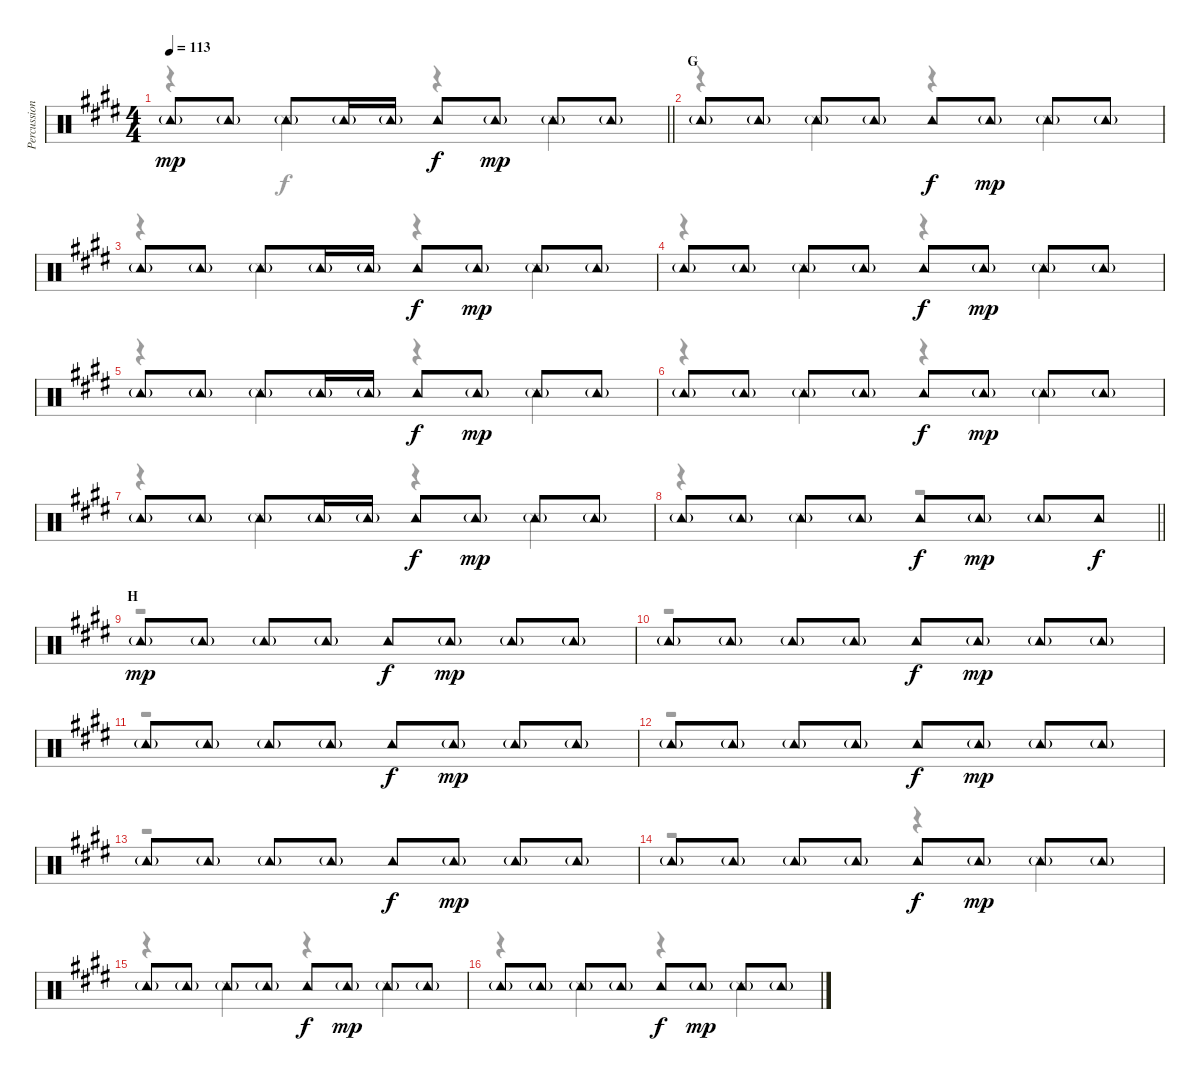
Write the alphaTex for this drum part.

\track ("Percussion" "Percussion") {instrument percussion}
\staff {score}
\articulation defaults
\voice
\ts (4 4)
\tempo 113
\clef neutral
\barLineRight lightlight
\ks e "Tambourine (hit)"{g}.8{dy mp} "Tambourine (hit)"{g}.8 "Tambourine (hit)"{g}.8 "Tambourine (hit)"{g}.16 "Tambourine (hit)"{g}.16 "Tambourine (hit)".8{dy f} "Tambourine (hit)"{g}.8{dy mp} "Tambourine (hit)"{g}.8 "Tambourine (hit)"{g}.8
|
\section ("" "G")
"Tambourine (hit)"{g}.8 "Tambourine (hit)"{g}.8 "Tambourine (hit)"{g}.8 "Tambourine (hit)"{g}.8 "Tambourine (hit)".8{dy f} "Tambourine (hit)"{g}.8{dy mp} "Tambourine (hit)"{g}.8 "Tambourine (hit)"{g}.8 |
"Tambourine (hit)"{g}.8 "Tambourine (hit)"{g}.8 "Tambourine (hit)"{g}.8 "Tambourine (hit)"{g}.16 "Tambourine (hit)"{g}.16 "Tambourine (hit)".8{dy f} "Tambourine (hit)"{g}.8{dy mp} "Tambourine (hit)"{g}.8 "Tambourine (hit)"{g}.8 |
"Tambourine (hit)"{g}.8 "Tambourine (hit)"{g}.8 "Tambourine (hit)"{g}.8 "Tambourine (hit)"{g}.8 "Tambourine (hit)".8{dy f} "Tambourine (hit)"{g}.8{dy mp} "Tambourine (hit)"{g}.8 "Tambourine (hit)"{g}.8 |
"Tambourine (hit)"{g}.8 "Tambourine (hit)"{g}.8 "Tambourine (hit)"{g}.8 "Tambourine (hit)"{g}.16 "Tambourine (hit)"{g}.16 "Tambourine (hit)".8{dy f} "Tambourine (hit)"{g}.8{dy mp} "Tambourine (hit)"{g}.8 "Tambourine (hit)"{g}.8 |
"Tambourine (hit)"{g}.8 "Tambourine (hit)"{g}.8 "Tambourine (hit)"{g}.8 "Tambourine (hit)"{g}.8 "Tambourine (hit)".8{dy f} "Tambourine (hit)"{g}.8{dy mp} "Tambourine (hit)"{g}.8 "Tambourine (hit)"{g}.8 |
"Tambourine (hit)"{g}.8 "Tambourine (hit)"{g}.8 "Tambourine (hit)"{g}.8 "Tambourine (hit)"{g}.16 "Tambourine (hit)"{g}.16 "Tambourine (hit)".8{dy f} "Tambourine (hit)"{g}.8{dy mp} "Tambourine (hit)"{g}.8 "Tambourine (hit)"{g}.8 |
\barLineRight lightlight "Tambourine (hit)"{g}.8 "Tambourine (hit)"{g}.8 "Tambourine (hit)"{g}.8 "Tambourine (hit)"{g}.8 "Tambourine (hit)".8{dy f} "Tambourine (hit)"{g}.8{dy mp} "Tambourine (hit)"{g}.8 "Tambourine (hit)".8{dy f}
|
\section ("" "H")
"Tambourine (hit)"{g}.8{dy mp} "Tambourine (hit)"{g}.8 "Tambourine (hit)"{g}.8 "Tambourine (hit)"{g}.8 "Tambourine (hit)".8{dy f} "Tambourine (hit)"{g}.8{dy mp} "Tambourine (hit)"{g}.8 "Tambourine (hit)"{g}.8 |
"Tambourine (hit)"{g}.8 "Tambourine (hit)"{g}.8 "Tambourine (hit)"{g}.8 "Tambourine (hit)"{g}.8 "Tambourine (hit)".8{dy f} "Tambourine (hit)"{g}.8{dy mp} "Tambourine (hit)"{g}.8 "Tambourine (hit)"{g}.8 |
"Tambourine (hit)"{g}.8 "Tambourine (hit)"{g}.8 "Tambourine (hit)"{g}.8 "Tambourine (hit)"{g}.8 "Tambourine (hit)".8{dy f} "Tambourine (hit)"{g}.8{dy mp} "Tambourine (hit)"{g}.8 "Tambourine (hit)"{g}.8 |
"Tambourine (hit)"{g}.8 "Tambourine (hit)"{g}.8 "Tambourine (hit)"{g}.8 "Tambourine (hit)"{g}.8 "Tambourine (hit)".8{dy f} "Tambourine (hit)"{g}.8{dy mp} "Tambourine (hit)"{g}.8 "Tambourine (hit)"{g}.8 |
"Tambourine (hit)"{g}.8 "Tambourine (hit)"{g}.8 "Tambourine (hit)"{g}.8 "Tambourine (hit)"{g}.8 "Tambourine (hit)".8{dy f} "Tambourine (hit)"{g}.8{dy mp} "Tambourine (hit)"{g}.8 "Tambourine (hit)"{g}.8 |
"Tambourine (hit)"{g}.8 "Tambourine (hit)"{g}.8 "Tambourine (hit)"{g}.8 "Tambourine (hit)"{g}.8 "Tambourine (hit)".8{dy f} "Tambourine (hit)"{g}.8{dy mp} "Tambourine (hit)"{g}.8 "Tambourine (hit)"{g}.8 |
"Tambourine (hit)"{g}.8 "Tambourine (hit)"{g}.8 "Tambourine (hit)"{g}.8 "Tambourine (hit)"{g}.8 "Tambourine (hit)".8{dy f} "Tambourine (hit)"{g}.8{dy mp} "Tambourine (hit)"{g}.8 "Tambourine (hit)"{g}.8 |
"Tambourine (hit)"{g}.8 "Tambourine (hit)"{g}.8 "Tambourine (hit)"{g}.8 "Tambourine (hit)"{g}.8 "Tambourine (hit)".8{dy f} "Tambourine (hit)"{g}.8{dy mp} "Tambourine (hit)"{g}.8 "Tambourine (hit)"{g}.8
\voice
\clef neutral
\ottava regular
\simile none
\barLineRight lightlight
\ks e
r.4{dy f} "Snare (side stick) 3".4 r.4 "Snare (side stick) 3".4 |
r.4 "Snare (side stick) 3".4 r.4 "Snare (side stick) 3".4 |
r.4 "Snare (side stick) 3".4 r.4 "Snare (side stick) 3".4 |
r.4 "Snare (side stick) 3".4 r.4 "Snare (side stick) 3".4 |
r.4 "Snare (side stick) 3".4 r.4 "Snare (side stick) 3".4 |
r.4 "Snare (side stick) 3".4 r.4 "Snare (side stick) 3".4 |
r.4 "Snare (side stick) 3".4 r.4 "Snare (side stick) 3".4 |
\barLineRight lightlight
r.4 "Snare (side stick) 3".4 r.2 |
r.1 |
r.1 |
r.1 |
r.1 |
r.1 |
r.2 r.4 "Snare (side stick) 3".4 |
r.4 "Snare (side stick) 3".4 r.4 "Snare (side stick) 3".4 |
r.4 "Snare (side stick) 3".4 r.4 "Snare (side stick) 3".4
